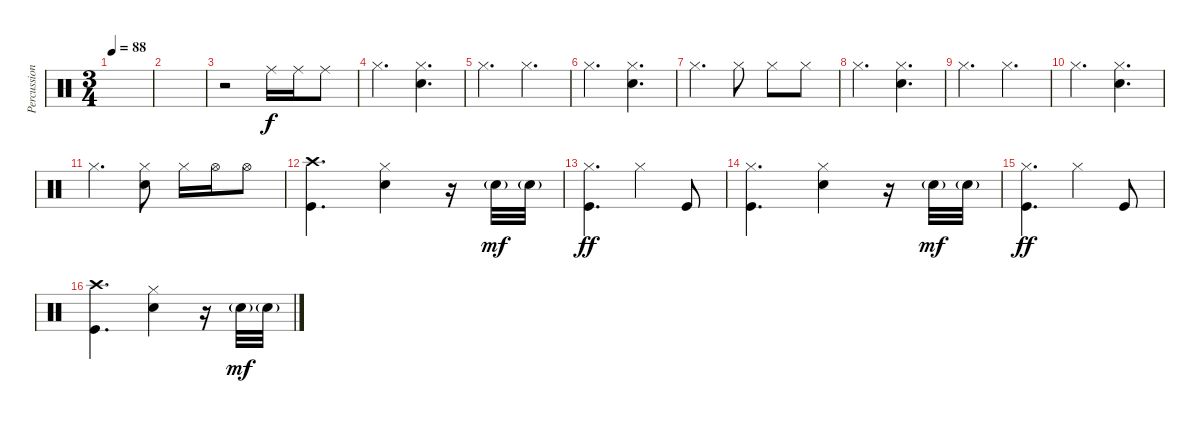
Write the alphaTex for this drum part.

\track ("Percussion" "Percussion") {instrument percussion}
\staff {score}
\articulation defaults
\ts (3 4)
\tempo 88
\clef neutral
\ks c
|
|
r.2 "Ride (middle)".16 "Ride (middle)".16 "Ride (middle)".8 |
"Hi-Hat (closed)".4{d} ("Hi-Hat (closed)" "Snare (hit) 2").4{d} |
"Hi-Hat (closed)".4{d} "Hi-Hat (closed)".4{d} |
"Hi-Hat (closed)".4{d} ("Hi-Hat (closed)" "Snare (hit) 2").4{d} |
"Hi-Hat (closed)".4{d} "Hi-Hat (closed)".8 "Hi-Hat (closed)".8 "Hi-Hat (closed)".8 |
"Hi-Hat (closed)".4{d} ("Hi-Hat (closed)" "Snare (hit) 2").4{d} |
"Hi-Hat (closed)".4{d} "Hi-Hat (closed)".4{d} |
"Hi-Hat (closed)".4{d} ("Hi-Hat (closed)" "Snare (hit) 2").4{d} |
"Hi-Hat (closed)".4{d} ("Hi-Hat (closed)" "Snare (hit) 2").8 "Hi-Hat (closed)".16 "Hi-Hat (open)".16 "Hi-Hat (open)".8 |
("Kick (hit)" "Crash high (hit)").4{d} ("Hi-Hat (closed)" "Snare (hit) 2").4 r.16 "Snare (hit) 2"{g}.32{dy mf} "Snare (hit) 2"{g}.32 |
("Kick (hit)" "Hi-Hat (closed)").4{d dy ff} "Hi-Hat (closed)".4 "Kick (hit)".8 |
("Kick (hit)" "Hi-Hat (closed)").4{d} ("Hi-Hat (closed)" "Snare (hit) 2").4 r.16 "Snare (hit) 2"{g}.32{dy mf} "Snare (hit) 2"{g}.32 |
("Kick (hit)" "Hi-Hat (closed)").4{d dy ff} "Hi-Hat (closed)".4 "Kick (hit)".8 |
("Kick (hit)" "Crash high (hit)").4{d} ("Hi-Hat (closed)" "Snare (hit) 2").4 r.16 "Snare (hit) 2"{g}.32{dy mf} "Snare (hit) 2"{g}.32
